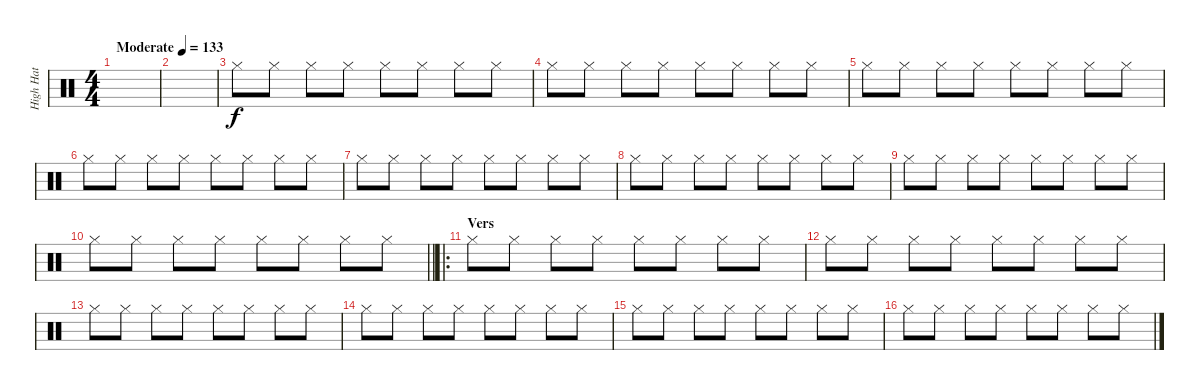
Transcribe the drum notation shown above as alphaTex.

\track ("High Hat" "High Hat") {instrument percussion}
\staff {score}
\articulation defaults
\ts (4 4)
\tempo (133 "Moderate")
\clef neutral
\ks c
|
|
"Hi-Hat (closed)".8 "Hi-Hat (closed)".8 "Hi-Hat (closed)".8 "Hi-Hat (closed)".8 "Hi-Hat (closed)".8 "Hi-Hat (closed)".8 "Hi-Hat (closed)".8 "Hi-Hat (closed)".8 |
"Hi-Hat (closed)".8 "Hi-Hat (closed)".8 "Hi-Hat (closed)".8 "Hi-Hat (closed)".8 "Hi-Hat (closed)".8 "Hi-Hat (closed)".8 "Hi-Hat (closed)".8 "Hi-Hat (closed)".8 |
"Hi-Hat (closed)".8 "Hi-Hat (closed)".8 "Hi-Hat (closed)".8 "Hi-Hat (closed)".8 "Hi-Hat (closed)".8 "Hi-Hat (closed)".8 "Hi-Hat (closed)".8 "Hi-Hat (closed)".8 |
"Hi-Hat (closed)".8 "Hi-Hat (closed)".8 "Hi-Hat (closed)".8 "Hi-Hat (closed)".8 "Hi-Hat (closed)".8 "Hi-Hat (closed)".8 "Hi-Hat (closed)".8 "Hi-Hat (closed)".8 |
"Hi-Hat (closed)".8 "Hi-Hat (closed)".8 "Hi-Hat (closed)".8 "Hi-Hat (closed)".8 "Hi-Hat (closed)".8 "Hi-Hat (closed)".8 "Hi-Hat (closed)".8 "Hi-Hat (closed)".8 |
"Hi-Hat (closed)".8 "Hi-Hat (closed)".8 "Hi-Hat (closed)".8 "Hi-Hat (closed)".8 "Hi-Hat (closed)".8 "Hi-Hat (closed)".8 "Hi-Hat (closed)".8 "Hi-Hat (closed)".8 |
"Hi-Hat (closed)".8 "Hi-Hat (closed)".8 "Hi-Hat (closed)".8 "Hi-Hat (closed)".8 "Hi-Hat (closed)".8 "Hi-Hat (closed)".8 "Hi-Hat (closed)".8 "Hi-Hat (closed)".8 |
\barLineRight lightlight "Hi-Hat (closed)".8 "Hi-Hat (closed)".8 "Hi-Hat (closed)".8 "Hi-Hat (closed)".8 "Hi-Hat (closed)".8 "Hi-Hat (closed)".8 "Hi-Hat (closed)".8 "Hi-Hat (closed)".8
|
\ro
\section ("" "Vers")
"Hi-Hat (closed)".8 "Hi-Hat (closed)".8 "Hi-Hat (closed)".8 "Hi-Hat (closed)".8 "Hi-Hat (closed)".8 "Hi-Hat (closed)".8 "Hi-Hat (closed)".8 "Hi-Hat (closed)".8 |
"Hi-Hat (closed)".8 "Hi-Hat (closed)".8 "Hi-Hat (closed)".8 "Hi-Hat (closed)".8 "Hi-Hat (closed)".8 "Hi-Hat (closed)".8 "Hi-Hat (closed)".8 "Hi-Hat (closed)".8 |
"Hi-Hat (closed)".8 "Hi-Hat (closed)".8 "Hi-Hat (closed)".8 "Hi-Hat (closed)".8 "Hi-Hat (closed)".8 "Hi-Hat (closed)".8 "Hi-Hat (closed)".8 "Hi-Hat (closed)".8 |
"Hi-Hat (closed)".8 "Hi-Hat (closed)".8 "Hi-Hat (closed)".8 "Hi-Hat (closed)".8 "Hi-Hat (closed)".8 "Hi-Hat (closed)".8 "Hi-Hat (closed)".8 "Hi-Hat (closed)".8 |
"Hi-Hat (closed)".8 "Hi-Hat (closed)".8 "Hi-Hat (closed)".8 "Hi-Hat (closed)".8 "Hi-Hat (closed)".8 "Hi-Hat (closed)".8 "Hi-Hat (closed)".8 "Hi-Hat (closed)".8 |
"Hi-Hat (closed)".8 "Hi-Hat (closed)".8 "Hi-Hat (closed)".8 "Hi-Hat (closed)".8 "Hi-Hat (closed)".8 "Hi-Hat (closed)".8 "Hi-Hat (closed)".8 "Hi-Hat (closed)".8
